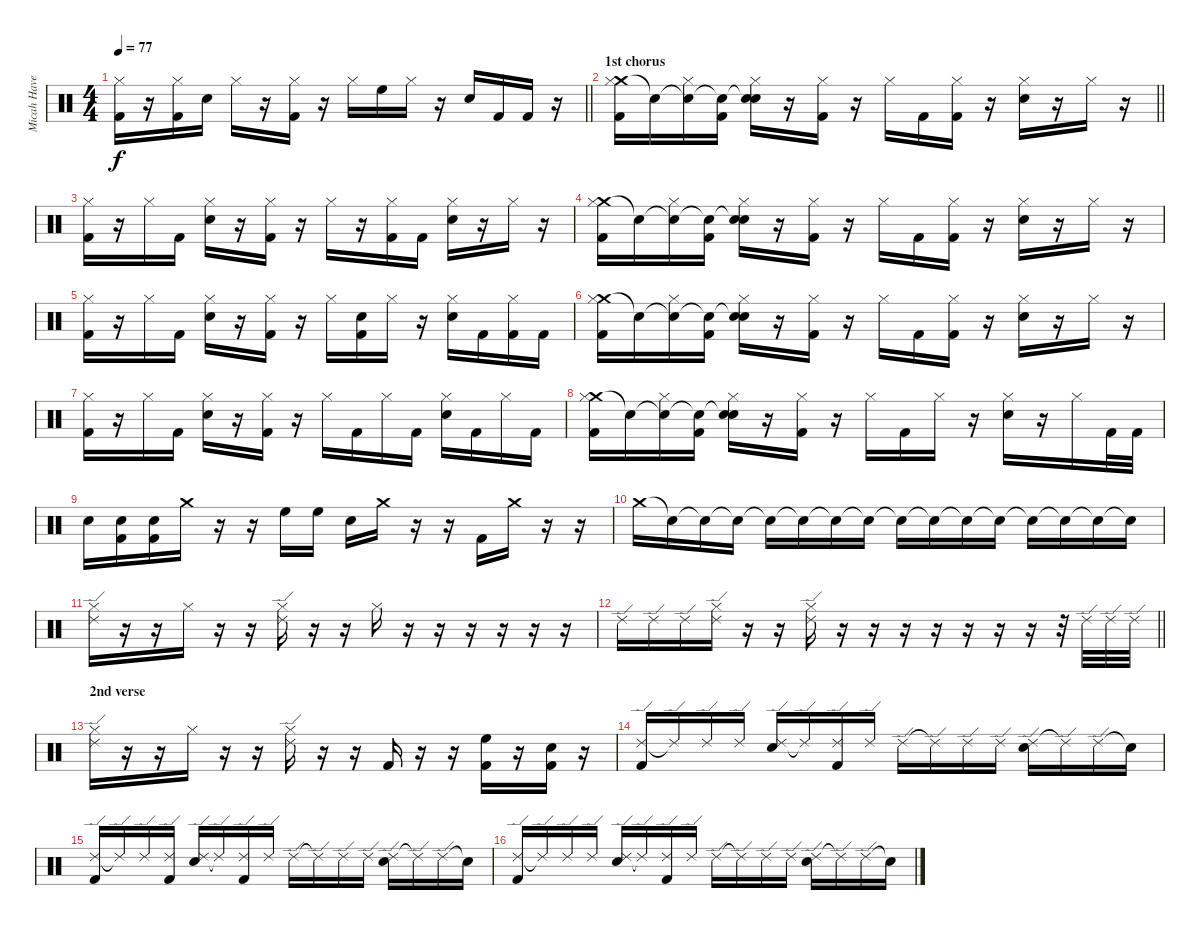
\track ("Micah Havertape" "Micah Have") {instrument percussion}
\staff {score}
\articulation defaults
\ts (4 4)
\tempo 77
\clef neutral
\barLineRight lightlight
\ks c
("Hi-Hat (closed)" "Kick (hit) 2").16{dy f} r.16 ("Hi-Hat (closed)" "Kick (hit) 2").16 "Electric Snare (hit)".16 "Hi-Hat (closed)".16 r.16 ("Hi-Hat (closed)" "Kick (hit) 2").16 r.16 "Hi-Hat (closed)".16 "High Floor Tom (hit)".16 "Hi-Hat (closed)".16 r.16 "Electric Snare (hit)".16 "Kick (hit) 2".16 "Kick (hit) 2".16 r.16 |
\section ("" "1st chorus")
\barLineRight lightlight
("Crash medium (hit)" "Hi-Hat (closed)" "Kick (hit) 2").16 "Snare (hit)"{t}.16 ("Snare (hit)"{t} "Hi-Hat (closed)").16 ("Snare (hit)"{t} "Kick (hit) 2").16 ("Snare (hit)"{t} "Hi-Hat (closed)" "Electric Snare (hit)").16 r.16 ("Hi-Hat (closed)" "Kick (hit) 2").16 r.16 "Hi-Hat (closed)".16 "Kick (hit) 2".16 ("Hi-Hat (closed)" "Kick (hit) 2").16 r.16 ("Hi-Hat (closed)" "Electric Snare (hit)").16 r.16 "Hi-Hat (closed)".16 r.16 |
("Hi-Hat (closed)" "Kick (hit) 2").16 r.16 "Hi-Hat (closed)".16 "Kick (hit) 2".16 ("Hi-Hat (closed)" "Electric Snare (hit)").16 r.16 ("Hi-Hat (closed)" "Kick (hit) 2").16 r.16 "Hi-Hat (closed)".16 r.16 ("Hi-Hat (closed)" "Kick (hit) 2").16 "Kick (hit) 2".16 ("Hi-Hat (closed)" "Electric Snare (hit)").16 r.16 "Hi-Hat (closed)".16 r.16 |
("Crash medium (hit)" "Hi-Hat (closed)" "Kick (hit) 2").16 "Snare (hit)"{t}.16 ("Snare (hit)"{t} "Hi-Hat (closed)").16 ("Snare (hit)"{t} "Kick (hit) 2").16 ("Snare (hit)"{t} "Hi-Hat (closed)" "Electric Snare (hit)").16 r.16 ("Hi-Hat (closed)" "Kick (hit) 2").16 r.16 "Hi-Hat (closed)".16 "Kick (hit) 2".16 ("Hi-Hat (closed)" "Kick (hit) 2").16 r.16 ("Hi-Hat (closed)" "Electric Snare (hit)").16 r.16 "Hi-Hat (closed)".16 r.16 |
("Hi-Hat (closed)" "Kick (hit) 2").16 r.16 "Hi-Hat (closed)".16 "Kick (hit) 2".16 ("Hi-Hat (closed)" "Electric Snare (hit)").16 r.16 ("Hi-Hat (closed)" "Kick (hit) 2").16 r.16 "Hi-Hat (closed)".16 ("Electric Snare (hit)" "Kick (hit) 2").16 "Hi-Hat (closed)".16 r.16 ("Hi-Hat (closed)" "Electric Snare (hit)").16 "Kick (hit) 2".16 ("Hi-Hat (closed)" "Kick (hit) 2").16 "Kick (hit) 2".16 |
("Crash medium (hit)" "Hi-Hat (closed)" "Kick (hit) 2").16 "Snare (hit)"{t}.16 ("Snare (hit)"{t} "Hi-Hat (closed)").16 ("Snare (hit)"{t} "Kick (hit) 2").16 ("Snare (hit)"{t} "Hi-Hat (closed)" "Electric Snare (hit)").16 r.16 ("Hi-Hat (closed)" "Kick (hit) 2").16 r.16 "Hi-Hat (closed)".16 "Kick (hit) 2".16 ("Hi-Hat (closed)" "Kick (hit) 2").16 r.16 ("Hi-Hat (closed)" "Electric Snare (hit)").16 r.16 "Hi-Hat (closed)".16 r.16 |
("Hi-Hat (closed)" "Kick (hit) 2").16 r.16 "Hi-Hat (closed)".16 "Kick (hit) 2".16 ("Hi-Hat (closed)" "Electric Snare (hit)").16 r.16 ("Hi-Hat (closed)" "Kick (hit) 2").16 r.16 "Hi-Hat (closed)".16 "Kick (hit) 2".16 "Hi-Hat (closed)".16 "Kick (hit) 2".16 ("Hi-Hat (closed)" "Electric Snare (hit)").16 "Kick (hit) 2".16 "Hi-Hat (closed)".16 "Kick (hit) 2".16 |
("Crash medium (hit)" "Hi-Hat (closed)" "Kick (hit) 2").16 "Snare (hit)"{t}.16 ("Snare (hit)"{t} "Hi-Hat (closed)").16 ("Snare (hit)"{t} "Kick (hit) 2").16 ("Snare (hit)"{t} "Hi-Hat (closed)" "Electric Snare (hit)").16 r.16 ("Hi-Hat (closed)" "Kick (hit) 2").16 r.16 "Hi-Hat (closed)".16 "Kick (hit) 2".16 "Hi-Hat (closed)".16 r.16 ("Hi-Hat (closed)" "Electric Snare (hit)").16 r.16 "Hi-Hat (closed)".16 "Kick (hit) 2".32 "Kick (hit) 2".32 |
"Electric Snare (hit)".16 ("Electric Snare (hit)" "Kick (hit) 2").16 ("Electric Snare (hit)" "Kick (hit) 2").16 "Crash medium (hit)".16 r.16 r.16 "High Floor Tom (hit)".16 "High Floor Tom (hit)".16 "Electric Snare (hit)".16 "Crash medium (hit)".16 r.16 r.16 "Kick (hit) 2".16 "Crash medium (hit)".16 r.16 r.16 |
"Crash medium (hit)".16 "Snare (hit)"{t}.16 "Snare (hit)"{t}.16 "Snare (hit)"{t}.16 "Snare (hit)"{t}.16 "Snare (hit)"{t}.16 "Snare (hit)"{t}.16 "Snare (hit)"{t}.16 "Snare (hit)"{t}.16 "Snare (hit)"{t}.16 "Snare (hit)"{t}.16 "Snare (hit)"{t}.16 "Snare (hit)"{t}.16 "Snare (hit)"{t}.16 "Snare (hit)"{t}.16 "Snare (hit)"{t}.16 |
("Ride (edge) 2" "Hi-Hat (closed)").16 r.16 r.16 "Hi-Hat (closed)".16 r.16 r.16 ("Ride (edge) 2" "Hi-Hat (closed)").16 r.16 r.16 "Hi-Hat (closed)".16 r.16 r.16 r.16 r.16 r.16 r.16 |
\barLineRight lightlight "Ride (edge) 2".16 "Ride (edge) 2".16 "Ride (edge) 2".16
("Ride (edge) 2" "Hi-Hat (closed)").16 r.16 r.16 ("Ride (edge) 2" "Hi-Hat (closed)").16 r.16 r.16 r.16 r.16 r.16 r.16 r.16 r.32 "Ride (edge) 2".32 "Ride (edge) 2".32 "Ride (edge) 2".32 |
\section ("" "2nd verse")
("Ride (edge) 2" "Hi-Hat (closed)").16 r.16 r.16 "Hi-Hat (closed)".16 r.16 r.16 ("Ride (edge) 2" "Hi-Hat (closed)").16 r.16 r.16 "Kick (hit) 2".16 r.16 r.16 ("High Floor Tom (hit)" "Kick (hit) 2").16 r.16 ("Electric Snare (hit)" "Kick (hit) 2").16 r.16 |
("Ride (edge) 2" "Kick (hit) 2").16 "Ride (edge) 2"{t}.16 "Ride (edge) 2".16 "Ride (edge) 2".16 ("Ride (edge) 2" "Electric Snare (hit)").16 "Ride (edge) 2"{t}.16 ("Ride (edge) 2" "Kick (hit) 2").16 "Ride (edge) 2".16 "Ride (edge) 2".16 "Ride (edge) 2"{t}.16 "Ride (edge) 2".16 "Ride (edge) 2".16 ("Ride (edge) 2" "Electric Snare (hit)").16 "Ride (edge) 2"{t}.16 "Ride (edge) 2".16 "Snare (hit)"{t}.16 |
("Ride (edge) 2" "Kick (hit) 2").16 "Ride (edge) 2"{t}.16 "Ride (edge) 2".16 ("Ride (edge) 2" "Kick (hit) 2").16 ("Ride (edge) 2" "Electric Snare (hit)").16 "Ride (edge) 2"{t}.16 ("Ride (edge) 2" "Kick (hit) 2").16 "Ride (edge) 2".16 "Ride (edge) 2".16 "Ride (edge) 2"{t}.16 "Ride (edge) 2".16 "Ride (edge) 2".16 ("Ride (edge) 2" "Electric Snare (hit)").16 "Ride (edge) 2"{t}.16 "Ride (edge) 2".16 "Snare (hit)"{t}.16 |
("Ride (edge) 2" "Kick (hit) 2").16 "Ride (edge) 2"{t}.16 "Ride (edge) 2".16 "Ride (edge) 2".16 ("Ride (edge) 2" "Electric Snare (hit)").16 "Ride (edge) 2"{t}.16 ("Ride (edge) 2" "Kick (hit) 2").16 "Ride (edge) 2".16 "Ride (edge) 2".16 "Ride (edge) 2"{t}.16 "Ride (edge) 2".16 "Ride (edge) 2".16 ("Ride (edge) 2" "Electric Snare (hit)").16 "Ride (edge) 2"{t}.16 "Ride (edge) 2".16 "Snare (hit)"{t}.16
